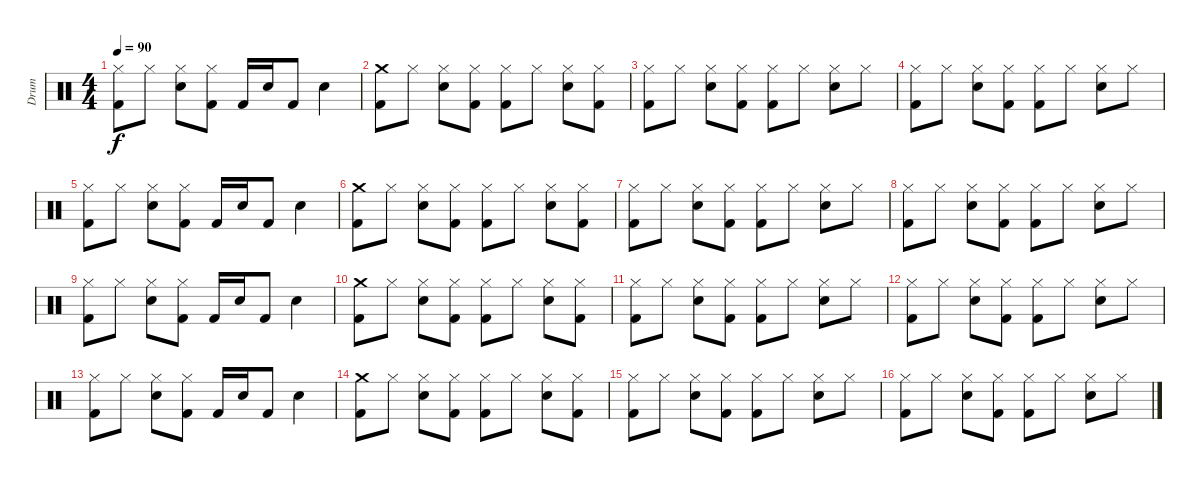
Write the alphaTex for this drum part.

\track ("Drum" "Drum") {instrument percussion}
\staff {score}
\articulation defaults
\ts (4 4)
\tempo 90
\clef neutral
\ks c
("Hi-Hat (closed)" "Kick (hit) 2").8{dy f} "Hi-Hat (closed)".8 ("Hi-Hat (closed)" "Snare (hit) 2").8 ("Hi-Hat (closed)" "Kick (hit) 2").8 "Kick (hit) 2".16 "Snare (hit) 2".16 "Kick (hit) 2".8 "Snare (hit) 2".4 |
("Crash medium (hit)" "Kick (hit) 2").8 "Hi-Hat (closed)".8 ("Hi-Hat (closed)" "Snare (hit) 2").8 ("Hi-Hat (closed)" "Kick (hit) 2").8 ("Hi-Hat (closed)" "Kick (hit) 2").8 "Hi-Hat (closed)".8 ("Hi-Hat (closed)" "Snare (hit) 2").8 ("Hi-Hat (closed)" "Kick (hit) 2").8 |
("Hi-Hat (closed)" "Kick (hit) 2").8 "Hi-Hat (closed)".8 ("Hi-Hat (closed)" "Snare (hit) 2").8 ("Hi-Hat (closed)" "Kick (hit) 2").8 ("Hi-Hat (closed)" "Kick (hit) 2").8 "Hi-Hat (closed)".8 ("Hi-Hat (closed)" "Snare (hit) 2").8 "Hi-Hat (closed)".8 |
("Hi-Hat (closed)" "Kick (hit) 2").8 "Hi-Hat (closed)".8 ("Hi-Hat (closed)" "Snare (hit) 2").8 ("Hi-Hat (closed)" "Kick (hit) 2").8 ("Hi-Hat (closed)" "Kick (hit) 2").8 "Hi-Hat (closed)".8 ("Hi-Hat (closed)" "Snare (hit) 2").8 "Hi-Hat (closed)".8 |
("Hi-Hat (closed)" "Kick (hit) 2").8 "Hi-Hat (closed)".8 ("Hi-Hat (closed)" "Snare (hit) 2").8 ("Hi-Hat (closed)" "Kick (hit) 2").8 "Kick (hit) 2".16 "Snare (hit) 2".16 "Kick (hit) 2".8 "Snare (hit) 2".4 |
("Crash medium (hit)" "Kick (hit) 2").8 "Hi-Hat (closed)".8 ("Hi-Hat (closed)" "Snare (hit) 2").8 ("Hi-Hat (closed)" "Kick (hit) 2").8 ("Hi-Hat (closed)" "Kick (hit) 2").8 "Hi-Hat (closed)".8 ("Hi-Hat (closed)" "Snare (hit) 2").8 ("Hi-Hat (closed)" "Kick (hit) 2").8 |
("Hi-Hat (closed)" "Kick (hit) 2").8 "Hi-Hat (closed)".8 ("Hi-Hat (closed)" "Snare (hit) 2").8 ("Hi-Hat (closed)" "Kick (hit) 2").8 ("Hi-Hat (closed)" "Kick (hit) 2").8 "Hi-Hat (closed)".8 ("Hi-Hat (closed)" "Snare (hit) 2").8 "Hi-Hat (closed)".8 |
("Hi-Hat (closed)" "Kick (hit) 2").8 "Hi-Hat (closed)".8 ("Hi-Hat (closed)" "Snare (hit) 2").8 ("Hi-Hat (closed)" "Kick (hit) 2").8 ("Hi-Hat (closed)" "Kick (hit) 2").8 "Hi-Hat (closed)".8 ("Hi-Hat (closed)" "Snare (hit) 2").8 "Hi-Hat (closed)".8 |
("Hi-Hat (closed)" "Kick (hit) 2").8 "Hi-Hat (closed)".8 ("Hi-Hat (closed)" "Snare (hit) 2").8 ("Hi-Hat (closed)" "Kick (hit) 2").8 "Kick (hit) 2".16 "Snare (hit) 2".16 "Kick (hit) 2".8 "Snare (hit) 2".4 |
("Crash medium (hit)" "Kick (hit) 2").8 "Hi-Hat (closed)".8 ("Hi-Hat (closed)" "Snare (hit) 2").8 ("Hi-Hat (closed)" "Kick (hit) 2").8 ("Hi-Hat (closed)" "Kick (hit) 2").8 "Hi-Hat (closed)".8 ("Hi-Hat (closed)" "Snare (hit) 2").8 ("Hi-Hat (closed)" "Kick (hit) 2").8 |
("Hi-Hat (closed)" "Kick (hit) 2").8 "Hi-Hat (closed)".8 ("Hi-Hat (closed)" "Snare (hit) 2").8 ("Hi-Hat (closed)" "Kick (hit) 2").8 ("Hi-Hat (closed)" "Kick (hit) 2").8 "Hi-Hat (closed)".8 ("Hi-Hat (closed)" "Snare (hit) 2").8 "Hi-Hat (closed)".8 |
("Hi-Hat (closed)" "Kick (hit) 2").8 "Hi-Hat (closed)".8 ("Hi-Hat (closed)" "Snare (hit) 2").8 ("Hi-Hat (closed)" "Kick (hit) 2").8 ("Hi-Hat (closed)" "Kick (hit) 2").8 "Hi-Hat (closed)".8 ("Hi-Hat (closed)" "Snare (hit) 2").8 "Hi-Hat (closed)".8 |
("Hi-Hat (closed)" "Kick (hit) 2").8 "Hi-Hat (closed)".8 ("Hi-Hat (closed)" "Snare (hit) 2").8 ("Hi-Hat (closed)" "Kick (hit) 2").8 "Kick (hit) 2".16 "Snare (hit) 2".16 "Kick (hit) 2".8 "Snare (hit) 2".4 |
("Crash medium (hit)" "Kick (hit) 2").8 "Hi-Hat (closed)".8 ("Hi-Hat (closed)" "Snare (hit) 2").8 ("Hi-Hat (closed)" "Kick (hit) 2").8 ("Hi-Hat (closed)" "Kick (hit) 2").8 "Hi-Hat (closed)".8 ("Hi-Hat (closed)" "Snare (hit) 2").8 ("Hi-Hat (closed)" "Kick (hit) 2").8 |
("Hi-Hat (closed)" "Kick (hit) 2").8 "Hi-Hat (closed)".8 ("Hi-Hat (closed)" "Snare (hit) 2").8 ("Hi-Hat (closed)" "Kick (hit) 2").8 ("Hi-Hat (closed)" "Kick (hit) 2").8 "Hi-Hat (closed)".8 ("Hi-Hat (closed)" "Snare (hit) 2").8 "Hi-Hat (closed)".8 |
("Hi-Hat (closed)" "Kick (hit) 2").8 "Hi-Hat (closed)".8 ("Hi-Hat (closed)" "Snare (hit) 2").8 ("Hi-Hat (closed)" "Kick (hit) 2").8 ("Hi-Hat (closed)" "Kick (hit) 2").8 "Hi-Hat (closed)".8 ("Hi-Hat (closed)" "Snare (hit) 2").8 "Hi-Hat (closed)".8
